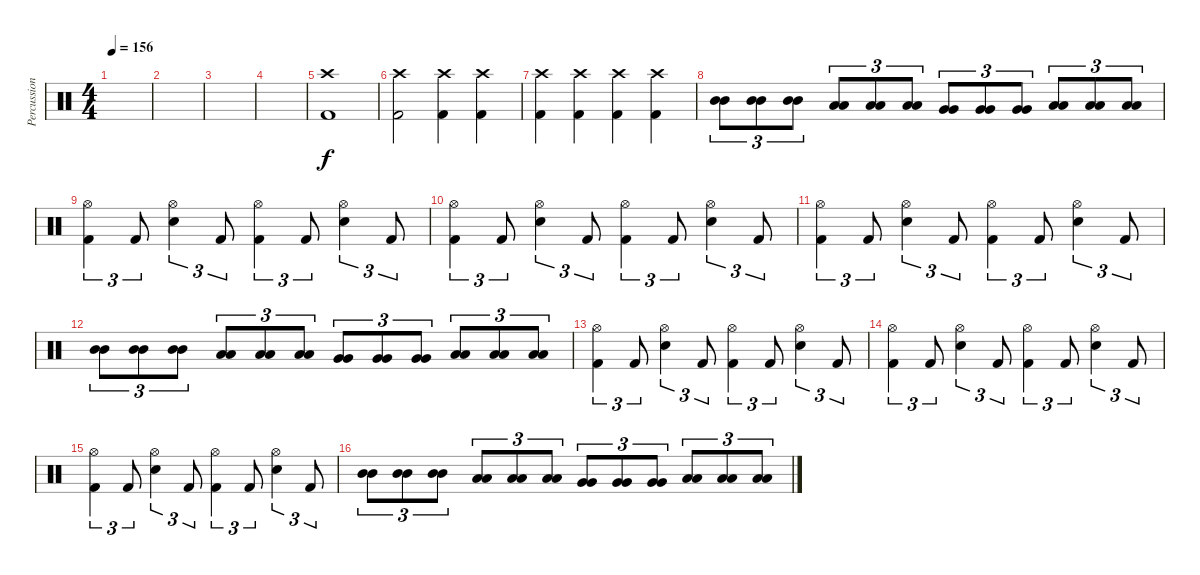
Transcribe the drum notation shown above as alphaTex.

\track ("Percussion" "Percussion") {instrument percussion}
\staff {score}
\articulation defaults
\ts (4 4)
\tempo 156
\tempo 140
\tempo 156
\clef neutral
\ks c
|
|
|
|
("Crash high (hit)" "Kick (hit) 2").1 |
("Crash high (hit)" "Kick (hit) 2").2 ("Crash high (hit)" "Kick (hit) 2").4 ("Crash high (hit)" "Kick (hit) 2").4 |
("Crash high (hit)" "Kick (hit) 2").4 ("Crash high (hit)" "Kick (hit) 2").4 ("Crash high (hit)" "Kick (hit) 2").4 ("Crash high (hit)" "Kick (hit) 2").4 |
("Mid Tom (hit)" "Mid Tom (hit)").8{tu (3 2)} ("Mid Tom (hit)" "Mid Tom (hit)").8{tu (3 2)} ("Mid Tom (hit)" "Mid Tom (hit)").8{tu (3 2)} ("Low Tom (hit)" "Low Tom (hit)").8{tu (3 2)} ("Low Tom (hit)" "Low Tom (hit)").8{tu (3 2)} ("Low Tom (hit)" "Low Tom (hit)").8{tu (3 2)} ("Very Low Tom (hit)" "Very Low Tom (hit)").8{tu (3 2)} ("Very Low Tom (hit)" "Very Low Tom (hit)").8{tu (3 2)} ("Very Low Tom (hit)" "Very Low Tom (hit)").8{tu (3 2)} ("Low Floor Tom (hit)" "Low Floor Tom (hit)").8{tu (3 2)} ("Low Floor Tom (hit)" "Low Floor Tom (hit)").8{tu (3 2)} ("Low Floor Tom (hit)" "Low Floor Tom (hit)").8{tu (3 2)} |
("Hi-Hat (open)" "Kick (hit) 2").4{tu (3 2)} "Kick (hit) 2".8{tu (3 2)} ("Electric Snare (hit)" "Hi-Hat (open)").4{tu (3 2)} "Kick (hit) 2".8{tu (3 2)} ("Hi-Hat (open)" "Kick (hit) 2").4{tu (3 2)} "Kick (hit) 2".8{tu (3 2)} ("Electric Snare (hit)" "Hi-Hat (open)").4{tu (3 2)} "Kick (hit) 2".8{tu (3 2)} |
("Hi-Hat (open)" "Kick (hit) 2").4{tu (3 2)} "Kick (hit) 2".8{tu (3 2)} ("Electric Snare (hit)" "Hi-Hat (open)").4{tu (3 2)} "Kick (hit) 2".8{tu (3 2)} ("Hi-Hat (open)" "Kick (hit) 2").4{tu (3 2)} "Kick (hit) 2".8{tu (3 2)} ("Electric Snare (hit)" "Hi-Hat (open)").4{tu (3 2)} "Kick (hit) 2".8{tu (3 2)} |
("Hi-Hat (open)" "Kick (hit) 2").4{tu (3 2)} "Kick (hit) 2".8{tu (3 2)} ("Electric Snare (hit)" "Hi-Hat (open)").4{tu (3 2)} "Kick (hit) 2".8{tu (3 2)} ("Hi-Hat (open)" "Kick (hit) 2").4{tu (3 2)} "Kick (hit) 2".8{tu (3 2)} ("Electric Snare (hit)" "Hi-Hat (open)").4{tu (3 2)} "Kick (hit) 2".8{tu (3 2)} |
("Mid Tom (hit)" "Mid Tom (hit)").8{tu (3 2)} ("Mid Tom (hit)" "Mid Tom (hit)").8{tu (3 2)} ("Mid Tom (hit)" "Mid Tom (hit)").8{tu (3 2)} ("Low Tom (hit)" "Low Tom (hit)").8{tu (3 2)} ("Low Tom (hit)" "Low Tom (hit)").8{tu (3 2)} ("Low Tom (hit)" "Low Tom (hit)").8{tu (3 2)} ("Very Low Tom (hit)" "Very Low Tom (hit)").8{tu (3 2)} ("Very Low Tom (hit)" "Very Low Tom (hit)").8{tu (3 2)} ("Very Low Tom (hit)" "Very Low Tom (hit)").8{tu (3 2)} ("Low Floor Tom (hit)" "Low Floor Tom (hit)").8{tu (3 2)} ("Low Floor Tom (hit)" "Low Floor Tom (hit)").8{tu (3 2)} ("Low Floor Tom (hit)" "Low Floor Tom (hit)").8{tu (3 2)} |
("Hi-Hat (open)" "Kick (hit) 2").4{tu (3 2)} "Kick (hit) 2".8{tu (3 2)} ("Electric Snare (hit)" "Hi-Hat (open)").4{tu (3 2)} "Kick (hit) 2".8{tu (3 2)} ("Hi-Hat (open)" "Kick (hit) 2").4{tu (3 2)} "Kick (hit) 2".8{tu (3 2)} ("Electric Snare (hit)" "Hi-Hat (open)").4{tu (3 2)} "Kick (hit) 2".8{tu (3 2)} |
("Hi-Hat (open)" "Kick (hit) 2").4{tu (3 2)} "Kick (hit) 2".8{tu (3 2)} ("Electric Snare (hit)" "Hi-Hat (open)").4{tu (3 2)} "Kick (hit) 2".8{tu (3 2)} ("Hi-Hat (open)" "Kick (hit) 2").4{tu (3 2)} "Kick (hit) 2".8{tu (3 2)} ("Electric Snare (hit)" "Hi-Hat (open)").4{tu (3 2)} "Kick (hit) 2".8{tu (3 2)} |
("Hi-Hat (open)" "Kick (hit) 2").4{tu (3 2)} "Kick (hit) 2".8{tu (3 2)} ("Electric Snare (hit)" "Hi-Hat (open)").4{tu (3 2)} "Kick (hit) 2".8{tu (3 2)} ("Hi-Hat (open)" "Kick (hit) 2").4{tu (3 2)} "Kick (hit) 2".8{tu (3 2)} ("Electric Snare (hit)" "Hi-Hat (open)").4{tu (3 2)} "Kick (hit) 2".8{tu (3 2)} |
("Mid Tom (hit)" "Mid Tom (hit)").8{tu (3 2)} ("Mid Tom (hit)" "Mid Tom (hit)").8{tu (3 2)} ("Mid Tom (hit)" "Mid Tom (hit)").8{tu (3 2)} ("Low Tom (hit)" "Low Tom (hit)").8{tu (3 2)} ("Low Tom (hit)" "Low Tom (hit)").8{tu (3 2)} ("Low Tom (hit)" "Low Tom (hit)").8{tu (3 2)} ("Very Low Tom (hit)" "Very Low Tom (hit)").8{tu (3 2)} ("Very Low Tom (hit)" "Very Low Tom (hit)").8{tu (3 2)} ("Very Low Tom (hit)" "Very Low Tom (hit)").8{tu (3 2)} ("Low Floor Tom (hit)" "Low Floor Tom (hit)").8{tu (3 2)} ("Low Floor Tom (hit)" "Low Floor Tom (hit)").8{tu (3 2)} ("Low Floor Tom (hit)" "Low Floor Tom (hit)").8{tu (3 2)}
